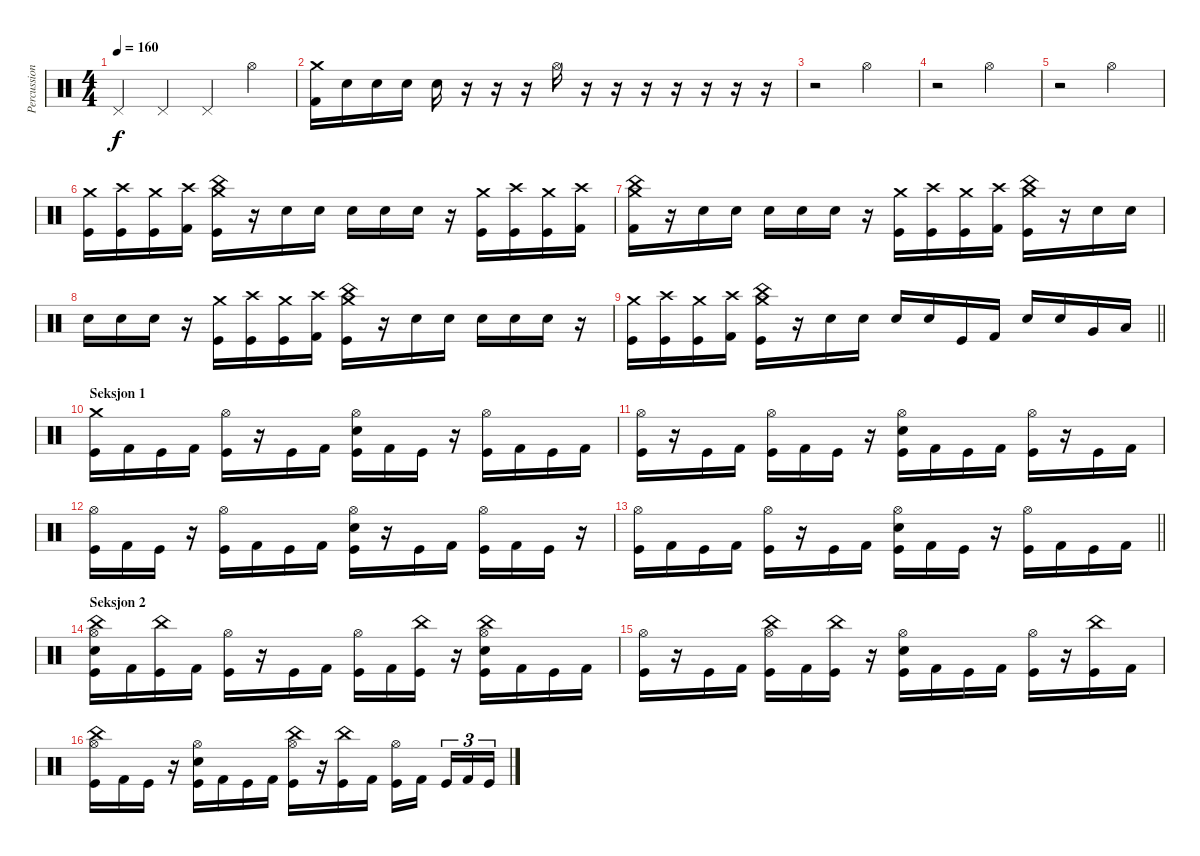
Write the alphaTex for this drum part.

\track ("Percussion" "Percussion") {instrument percussion}
\staff {score}
\articulation defaults
\ts (4 4)
\tempo 160
\clef neutral
\ks c "Pedal Hi-Hat (hit)".4{dy f} "Pedal Hi-Hat (hit)".4 "Pedal Hi-Hat (hit)".4 "Hi-Hat (open)".4
|
("Crash medium (hit)" "Kick (hit) 2").16 "Snare (hit) 2".16 "Snare (hit) 2".16 "Snare (hit) 2".16 "Snare (hit) 2".16 r.16 r.16 r.16 "Hi-Hat (open)".16 r.16 r.16 r.16 r.16 r.16 r.16 r.16 |
r.2 "Hi-Hat (open)".2 |
r.2 "Hi-Hat (open)".2 |
r.2 "Hi-Hat (open)".2 |
("Crash medium (hit)" "Kick (hit)").16 ("Crash high (hit)" "Kick (hit)").16 ("Crash medium (hit)" "Kick (hit)").16 ("Crash high (hit)" "Kick (hit) 2").16 ("Crash medium (hit)" "China (hit)" "Kick (hit)").16 r.16 "Snare (hit) 2".16 "Snare (hit) 2".16 "Snare (hit) 2".16 "Snare (hit) 2".16 "Snare (hit) 2".16 r.16 ("Crash medium (hit)" "Kick (hit)").16 ("Crash high (hit)" "Kick (hit)").16 ("Crash medium (hit)" "Kick (hit)").16 ("Crash high (hit)" "Kick (hit) 2").16 |
("Crash medium (hit)" "China (hit)" "Kick (hit) 2").16 r.16 "Snare (hit) 2".16 "Snare (hit) 2".16 "Snare (hit) 2".16 "Snare (hit) 2".16 "Snare (hit) 2".16 r.16 ("Crash medium (hit)" "Kick (hit)").16 ("Crash high (hit)" "Kick (hit)").16 ("Crash medium (hit)" "Kick (hit)").16 ("Crash high (hit)" "Kick (hit) 2").16 ("Crash medium (hit)" "China (hit)" "Kick (hit)").16 r.16 "Snare (hit) 2".16 "Snare (hit) 2".16 |
"Snare (hit) 2".16 "Snare (hit) 2".16 "Snare (hit) 2".16 r.16 ("Crash medium (hit)" "Kick (hit)").16 ("Crash high (hit)" "Kick (hit)").16 ("Crash medium (hit)" "Kick (hit)").16 ("Crash high (hit)" "Kick (hit) 2").16 ("Crash medium (hit)" "China (hit)" "Kick (hit)").16 r.16 "Snare (hit) 2".16 "Snare (hit) 2".16 "Snare (hit) 2".16 "Snare (hit) 2".16 "Snare (hit) 2".16 r.16 |
\barLineRight lightlight
("Crash medium (hit)" "Kick (hit)").16 ("Crash high (hit)" "Kick (hit)").16 ("Crash medium (hit)" "Kick (hit)").16 ("Crash high (hit)" "Kick (hit) 2").16 ("Crash medium (hit)" "China (hit)" "Kick (hit)").16 r.16 "Snare (hit) 2".16 "Snare (hit) 2".16 "Snare (hit) 2".16 "Snare (hit) 2".16 "Kick (hit)".16 "Kick (hit) 2".16 "Snare (hit) 2".16 "Snare (hit) 2".16 "Very Low Tom (hit)".16 "Low Floor Tom (hit)".16 |
\section ("" "Seksjon 1")
("Crash medium (hit)" "Kick (hit)").16 "Kick (hit) 2".16 "Kick (hit)".16 "Kick (hit) 2".16 ("Hi-Hat (open)" "Kick (hit)").16 r.16 "Kick (hit)".16 "Kick (hit) 2".16 ("Hi-Hat (open)" "Snare (hit) 2" "Kick (hit)").16 "Kick (hit) 2".16 "Kick (hit)".16 r.16 ("Hi-Hat (open)" "Kick (hit)").16 "Kick (hit) 2".16 "Kick (hit)".16 "Kick (hit) 2".16 |
("Hi-Hat (open)" "Kick (hit)").16 r.16 "Kick (hit)".16 "Kick (hit) 2".16 ("Hi-Hat (open)" "Kick (hit)").16 "Kick (hit) 2".16 "Kick (hit)".16 r.16 ("Hi-Hat (open)" "Snare (hit) 2" "Kick (hit)").16 "Kick (hit) 2".16 "Kick (hit)".16 "Kick (hit) 2".16 ("Hi-Hat (open)" "Kick (hit)").16 r.16 "Kick (hit)".16 "Kick (hit) 2".16 |
("Hi-Hat (open)" "Kick (hit)").16 "Kick (hit) 2".16 "Kick (hit)".16 r.16 ("Hi-Hat (open)" "Kick (hit)").16 "Kick (hit) 2".16 "Kick (hit)".16 "Kick (hit) 2".16 ("Hi-Hat (open)" "Snare (hit) 2" "Kick (hit)").16 r.16 "Kick (hit)".16 "Kick (hit) 2".16 ("Hi-Hat (open)" "Kick (hit)").16 "Kick (hit) 2".16 "Kick (hit)".16 r.16 |
\barLineRight lightlight
("Hi-Hat (open)" "Kick (hit)").16 "Kick (hit) 2".16 "Kick (hit)".16 "Kick (hit) 2".16 ("Hi-Hat (open)" "Kick (hit)").16 r.16 "Kick (hit)".16 "Kick (hit) 2".16 ("Hi-Hat (open)" "Snare (hit) 2" "Kick (hit)").16 "Kick (hit) 2".16 "Kick (hit)".16 r.16 ("Hi-Hat (open)" "Kick (hit)").16 "Kick (hit) 2".16 "Kick (hit)".16 "Kick (hit) 2".16 |
\section ("" "Seksjon 2")
("China (hit)" "Hi-Hat (open)" "Snare (hit) 2" "Kick (hit)").16 "Kick (hit) 2".16 ("China (hit)" "Kick (hit)").16 "Kick (hit) 2".16 ("Hi-Hat (open)" "Kick (hit)").16 r.16 "Kick (hit)".16 "Kick (hit) 2".16 ("Hi-Hat (open)" "Kick (hit)").16 "Kick (hit) 2".16 ("China (hit)" "Kick (hit)").16 r.16 ("China (hit)" "Hi-Hat (open)" "Snare (hit) 2" "Kick (hit)").16 "Kick (hit) 2".16 "Kick (hit)".16 "Kick (hit) 2".16 |
("Hi-Hat (open)" "Kick (hit)").16 r.16 "Kick (hit)".16 "Kick (hit) 2".16 ("China (hit)" "Hi-Hat (open)" "Kick (hit)").16 "Kick (hit) 2".16 ("China (hit)" "Kick (hit)").16 r.16 ("Hi-Hat (open)" "Snare (hit) 2" "Kick (hit)").16 "Kick (hit) 2".16 "Kick (hit)".16 "Kick (hit) 2".16 ("Hi-Hat (open)" "Kick (hit)").16 r.16 ("China (hit)" "Kick (hit)").16 "Kick (hit) 2".16 |
("China (hit)" "Hi-Hat (open)" "Kick (hit)").16 "Kick (hit) 2".16 "Kick (hit)".16 r.16 ("Hi-Hat (open)" "Snare (hit) 2" "Kick (hit)").16 "Kick (hit) 2".16 "Kick (hit)".16 "Kick (hit) 2".16 ("China (hit)" "Hi-Hat (open)" "Kick (hit)").16 r.16 ("China (hit)" "Kick (hit)").16 "Kick (hit) 2".16 ("Hi-Hat (open)" "Kick (hit)").16 "Kick (hit) 2".16{beam splitsecondary} "Kick (hit)".16{tu (3 2)} "Kick (hit) 2".16{tu (3 2)} "Kick (hit)".16{tu (3 2)}
